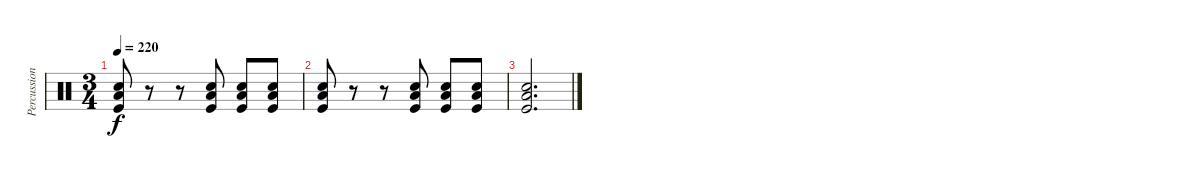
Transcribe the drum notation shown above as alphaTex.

\track ("Percussion" "Percussion") {instrument percussion}
\staff {score}
\articulation defaults
\ts (3 4)
\tempo 220
\clef neutral
\ks c
("Low Tom (hit)" "Electric Snare (hit)" "Kick (hit)").8{dy f} r.8 r.8 ("Low Tom (hit)" "Electric Snare (hit)" "Kick (hit)").8 ("Low Tom (hit)" "Electric Snare (hit)" "Kick (hit)").8 ("Low Tom (hit)" "Electric Snare (hit)" "Kick (hit)").8 |
("Low Tom (hit)" "Electric Snare (hit)" "Kick (hit)").8 r.8 r.8 ("Low Tom (hit)" "Electric Snare (hit)" "Kick (hit)").8 ("Low Tom (hit)" "Electric Snare (hit)" "Kick (hit)").8 ("Low Tom (hit)" "Electric Snare (hit)" "Kick (hit)").8 |
("Low Tom (hit)" "Electric Snare (hit)" "Kick (hit)").2{d}
